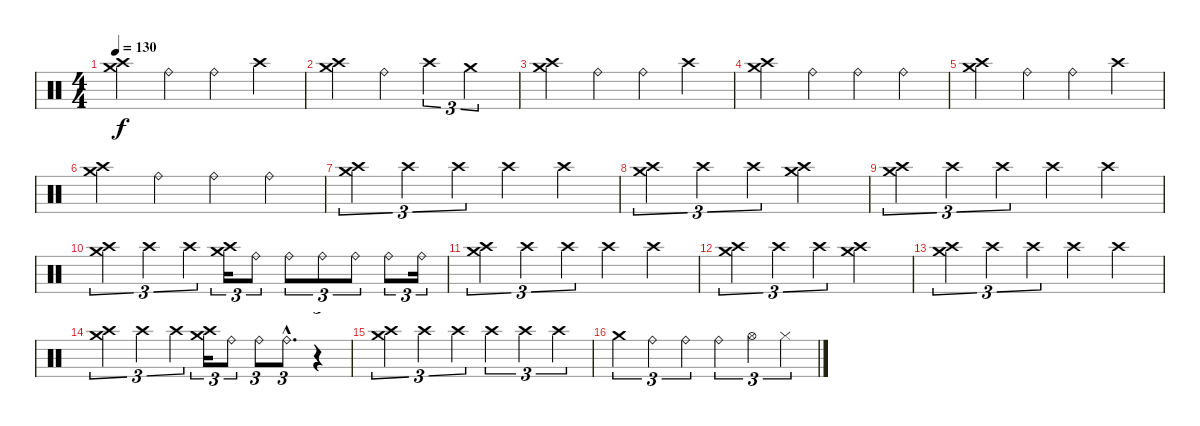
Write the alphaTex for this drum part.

\track "" {instrument percussion}
\staff {score}
\articulation defaults
\ts (4 4)
\tempo 130
\clef neutral
\ks c
("Crash medium (hit)" "Crash high (hit)").4{dy f} "Ride (bell)".4 "Ride (bell)".4 "Crash high (hit)".4 |
("Crash medium (hit)" "Crash high (hit)").4 "Ride (bell)".4 "Crash high (hit)".4{tu (3 2)} "Crash medium (hit)".2{tu (3 2)} |
("Crash medium (hit)" "Crash high (hit)").4 "Ride (bell)".4 "Ride (bell)".4 "Crash high (hit)".4 |
("Crash medium (hit)" "Crash high (hit)").4 "Ride (bell)".4 "Ride (bell)".4 "Ride (bell)".4 |
("Crash medium (hit)" "Crash high (hit)").4 "Ride (bell)".4 "Ride (bell)".4 "Crash high (hit)".4 |
("Crash medium (hit)" "Crash high (hit)").4 "Ride (bell)".4 "Ride (bell)".4 "Ride (bell)".4 |
("Crash medium (hit)" "Crash high (hit)").4{tu (3 2)} "Crash high (hit)".4{tu (3 2)} "Crash high (hit)".4{tu (3 2)} "Crash high (hit)".4 "Crash high (hit)".4 |
("Crash medium (hit)" "Crash high (hit)").4{tu (3 2)} "Crash high (hit)".4{tu (3 2)} "Crash high (hit)".4{tu (3 2)} ("Crash medium (hit)" "Crash high (hit)").2 |
("Crash medium (hit)" "Crash high (hit)").4{tu (3 2)} "Crash high (hit)".4{tu (3 2)} "Crash high (hit)".4{tu (3 2)} "Crash high (hit)".4 "Crash high (hit)".4 |
("Crash medium (hit)" "Crash high (hit)").4{tu (3 2)} "Crash high (hit)".4{tu (3 2)} "Crash high (hit)".4{tu (3 2)} ("Crash medium (hit)" "Crash high (hit)").16{tu (3 2)} "Ride (bell)".8{tu (3 2)} "Ride (bell)".8{tu (3 2)} "Ride (bell)".8{tu (3 2)} "Ride (bell)".8{tu (3 2)} "Ride (bell)".8{tu (3 2)} "Ride (bell)".16{tu (3 2)} |
("Crash medium (hit)" "Crash high (hit)").4{tu (3 2)} "Crash high (hit)".4{tu (3 2)} "Crash high (hit)".4{tu (3 2)} "Crash high (hit)".4 "Crash high (hit)".4 |
("Crash medium (hit)" "Crash high (hit)").4{tu (3 2)} "Crash high (hit)".4{tu (3 2)} "Crash high (hit)".4{tu (3 2)} ("Crash medium (hit)" "Crash high (hit)").2 |
("Crash medium (hit)" "Crash high (hit)").4{tu (3 2)} "Crash high (hit)".4{tu (3 2)} "Crash high (hit)".4{tu (3 2)} "Crash high (hit)".4 "Crash high (hit)".4 |
("Crash medium (hit)" "Crash high (hit)").4{tu (3 2)} "Crash high (hit)".4{tu (3 2)} "Crash high (hit)".4{tu (3 2)} ("Crash medium (hit)" "Crash high (hit)").16{tu (3 2)} "Ride (bell)".8{tu (3 2)} "Ride (bell)".8{tu (3 2)} "Ride (bell)"{hac}.8{d tu (3 2)} r.4{tu (3 2)} |
("Crash medium (hit)" "Crash high (hit)").4{tu (3 2)} "Crash high (hit)".4{tu (3 2)} "Crash high (hit)".4{tu (3 2)} "Crash high (hit)".4{tu (3 2)} "Crash high (hit)".4{tu (3 2)} "Crash high (hit)".4{tu (3 2)} |
"Crash medium (hit)".4{tu (3 2)} "Ride (bell)".4{tu (3 2)} "Ride (bell)".4{tu (3 2)} "Ride (bell)".4{tu (3 2)} "Hi-Hat (open)".4{tu (3 2)} "Hi-Hat (closed)".4{tu (3 2)}
